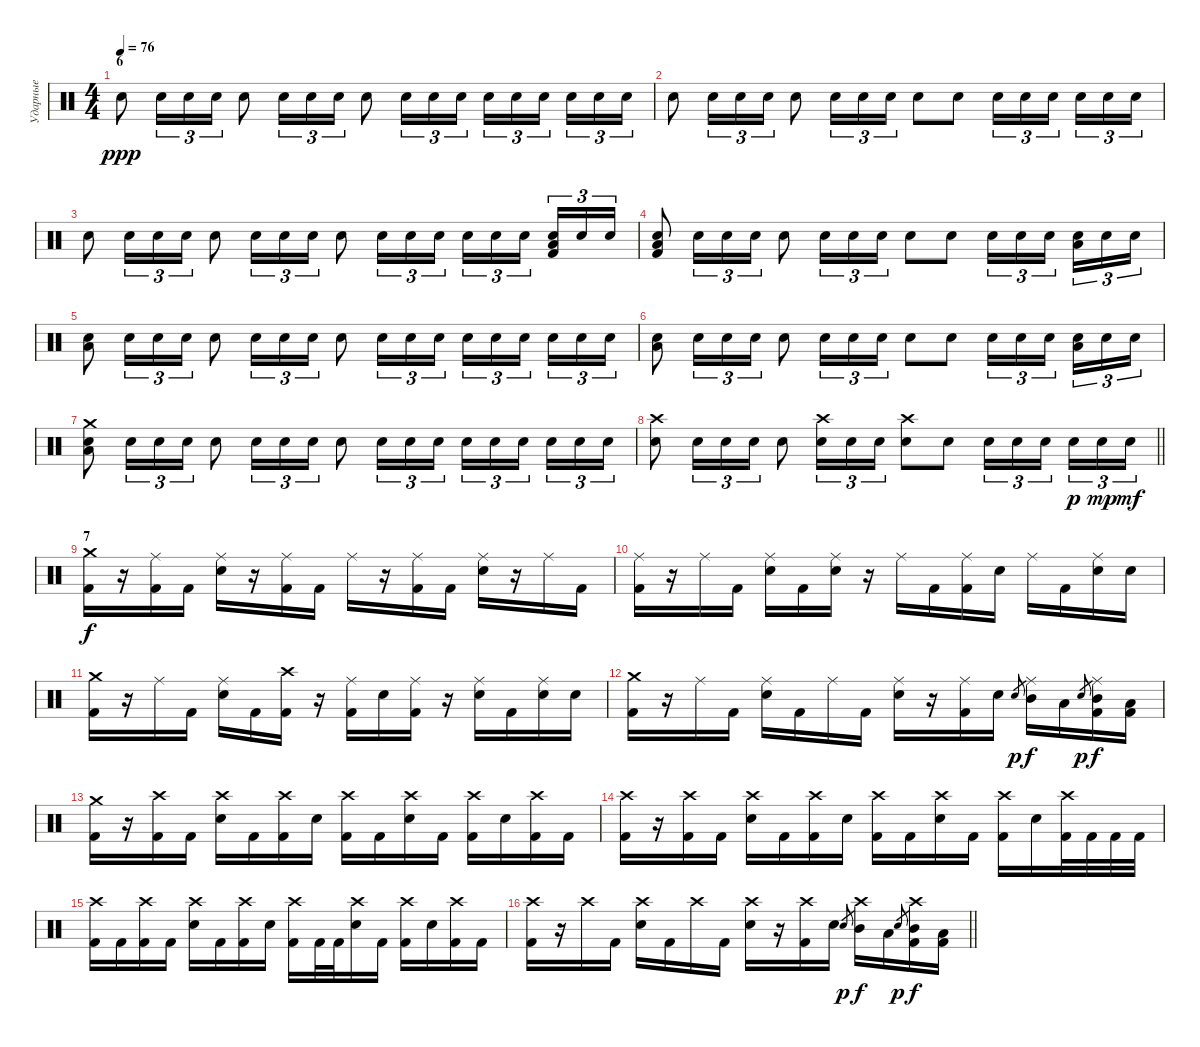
\track ("Ударные" "Ударные") {instrument percussion}
\staff {score}
\articulation defaults
\ts (4 4)
\section ("" "6")
\tempo 76
\clef neutral
\ks c "Snare (hit) 2".8{dy ppp} "Snare (hit) 2".16{tu (3 2)} "Snare (hit) 2".16{tu (3 2)} "Snare (hit) 2".16{tu (3 2)} "Snare (hit) 2".8 "Snare (hit) 2".16{tu (3 2)} "Snare (hit) 2".16{tu (3 2)} "Snare (hit) 2".16{tu (3 2)} "Snare (hit) 2".8 "Snare (hit) 2".16{tu (3 2)} "Snare (hit) 2".16{tu (3 2)} "Snare (hit) 2".16{tu (3 2)} "Snare (hit) 2".16{tu (3 2)} "Snare (hit) 2".16{tu (3 2)} "Snare (hit) 2".16{tu (3 2) beam splitsecondary} "Snare (hit) 2".16{tu (3 2)} "Snare (hit) 2".16{tu (3 2)} "Snare (hit) 2".16{tu (3 2)}
|
"Snare (hit) 2".8 "Snare (hit) 2".16{tu (3 2)} "Snare (hit) 2".16{tu (3 2)} "Snare (hit) 2".16{tu (3 2)} "Snare (hit) 2".8 "Snare (hit) 2".16{tu (3 2)} "Snare (hit) 2".16{tu (3 2)} "Snare (hit) 2".16{tu (3 2)} "Snare (hit) 2".8 "Snare (hit) 2".8 "Snare (hit) 2".16{tu (3 2)} "Snare (hit) 2".16{tu (3 2)} "Snare (hit) 2".16{tu (3 2) beam splitsecondary} "Snare (hit) 2".16{tu (3 2)} "Snare (hit) 2".16{tu (3 2)} "Snare (hit) 2".16{tu (3 2)} |
"Snare (hit) 2".8 "Snare (hit) 2".16{tu (3 2)} "Snare (hit) 2".16{tu (3 2)} "Snare (hit) 2".16{tu (3 2)} "Snare (hit) 2".8 "Snare (hit) 2".16{tu (3 2)} "Snare (hit) 2".16{tu (3 2)} "Snare (hit) 2".16{tu (3 2)} "Snare (hit) 2".8 "Snare (hit) 2".16{tu (3 2)} "Snare (hit) 2".16{tu (3 2)} "Snare (hit) 2".16{tu (3 2)} "Snare (hit) 2".16{tu (3 2)} "Snare (hit) 2".16{tu (3 2)} "Snare (hit) 2".16{tu (3 2) beam splitsecondary} ("Low Floor Tom (hit)" "Snare (hit) 2" "Kick (hit) 2").16{tu (3 2)} "Snare (hit) 2".16{tu (3 2)} "Snare (hit) 2".16{tu (3 2)} |
("Low Floor Tom (hit)" "Snare (hit) 2" "Kick (hit) 2").8 "Snare (hit) 2".16{tu (3 2)} "Snare (hit) 2".16{tu (3 2)} "Snare (hit) 2".16{tu (3 2)} "Snare (hit) 2".8 "Snare (hit) 2".16{tu (3 2)} "Snare (hit) 2".16{tu (3 2)} "Snare (hit) 2".16{tu (3 2)} "Snare (hit) 2".8 "Snare (hit) 2".8 "Snare (hit) 2".16{tu (3 2)} "Snare (hit) 2".16{tu (3 2)} "Snare (hit) 2".16{tu (3 2) beam splitsecondary} ("Low Floor Tom (hit)" "Snare (hit) 2").16{tu (3 2)} "Snare (hit) 2".16{tu (3 2)} "Snare (hit) 2".16{tu (3 2)} |
("Low Floor Tom (hit)" "Snare (hit) 2").8 "Snare (hit) 2".16{tu (3 2)} "Snare (hit) 2".16{tu (3 2)} "Snare (hit) 2".16{tu (3 2)} "Snare (hit) 2".8 "Snare (hit) 2".16{tu (3 2)} "Snare (hit) 2".16{tu (3 2)} "Snare (hit) 2".16{tu (3 2)} "Snare (hit) 2".8 "Snare (hit) 2".16{tu (3 2)} "Snare (hit) 2".16{tu (3 2)} "Snare (hit) 2".16{tu (3 2)} "Snare (hit) 2".16{tu (3 2)} "Snare (hit) 2".16{tu (3 2)} "Snare (hit) 2".16{tu (3 2) beam splitsecondary} "Snare (hit) 2".16{tu (3 2)} "Snare (hit) 2".16{tu (3 2)} "Snare (hit) 2".16{tu (3 2)} |
("Low Floor Tom (hit)" "Snare (hit) 2").8 "Snare (hit) 2".16{tu (3 2)} "Snare (hit) 2".16{tu (3 2)} "Snare (hit) 2".16{tu (3 2)} "Snare (hit) 2".8 "Snare (hit) 2".16{tu (3 2)} "Snare (hit) 2".16{tu (3 2)} "Snare (hit) 2".16{tu (3 2)} "Snare (hit) 2".8 "Snare (hit) 2".8 "Snare (hit) 2".16{tu (3 2)} "Snare (hit) 2".16{tu (3 2)} "Snare (hit) 2".16{tu (3 2) beam splitsecondary} ("Low Floor Tom (hit)" "Snare (hit) 2").16{tu (3 2)} "Snare (hit) 2".16{tu (3 2)} "Snare (hit) 2".16{tu (3 2)} |
("Crash medium (hit)" "Low Floor Tom (hit)" "Snare (hit) 2").8 "Snare (hit) 2".16{tu (3 2)} "Snare (hit) 2".16{tu (3 2)} "Snare (hit) 2".16{tu (3 2)} "Snare (hit) 2".8 "Snare (hit) 2".16{tu (3 2)} "Snare (hit) 2".16{tu (3 2)} "Snare (hit) 2".16{tu (3 2)} "Snare (hit) 2".8 "Snare (hit) 2".16{tu (3 2)} "Snare (hit) 2".16{tu (3 2)} "Snare (hit) 2".16{tu (3 2)} "Snare (hit) 2".16{tu (3 2)} "Snare (hit) 2".16{tu (3 2)} "Snare (hit) 2".16{tu (3 2) beam splitsecondary} "Snare (hit) 2".16{tu (3 2)} "Snare (hit) 2".16{tu (3 2)} "Snare (hit) 2".16{tu (3 2)} |
\barLineRight lightlight
("Crash high (hit)" "Snare (hit) 2").8 "Snare (hit) 2".16{tu (3 2)} "Snare (hit) 2".16{tu (3 2)} "Snare (hit) 2".16{tu (3 2)} "Snare (hit) 2".8 ("Crash high (hit)" "Snare (hit) 2").16{tu (3 2)} "Snare (hit) 2".16{tu (3 2)} "Snare (hit) 2".16{tu (3 2)} ("Crash high (hit)" "Snare (hit) 2").8 "Snare (hit) 2".8 "Snare (hit) 2".16{tu (3 2)} "Snare (hit) 2".16{tu (3 2)} "Snare (hit) 2".16{tu (3 2) beam splitsecondary} "Snare (hit) 2".16{tu (3 2) dy p} "Snare (hit) 2".16{tu (3 2) dy mp} "Snare (hit) 2".16{tu (3 2) dy mf} |
\section ("" "7")
("Crash medium (hit)" "Kick (hit) 2").16{dy f} r.16 ("Ride (middle)" "Kick (hit) 2").16 "Kick (hit) 2".16 ("Ride (middle)" "Snare (hit) 2").16 r.16 ("Ride (middle)" "Kick (hit) 2").16 "Kick (hit) 2".16 "Ride (middle)".16 r.16 ("Ride (middle)" "Kick (hit) 2").16 "Kick (hit) 2".16 ("Ride (middle)" "Snare (hit) 2").16 r.16 "Ride (middle)".16 "Kick (hit) 2".16 |
("Ride (middle)" "Kick (hit) 2").16 r.16 "Ride (middle)".16 "Kick (hit) 2".16 ("Ride (middle)" "Snare (hit) 2").16 "Kick (hit) 2".16 ("Ride (middle)" "Snare (hit) 2").16 r.16 "Ride (middle)".16 "Kick (hit) 2".16 ("Ride (middle)" "Kick (hit) 2").16 "Snare (hit) 2".16 "Ride (middle)".16 "Kick (hit) 2".16 ("Ride (middle)" "Snare (hit) 2").16 "Snare (hit) 2".16 |
("Crash medium (hit)" "Kick (hit) 2").16 r.16 "Ride (middle)".16 "Kick (hit) 2".16 ("Ride (middle)" "Snare (hit) 2").16 "Kick (hit) 2".16 ("Crash high (hit)" "Kick (hit) 2").16 r.16 ("Ride (middle)" "Kick (hit) 2").16 "Snare (hit) 2".16 ("Ride (middle)" "Kick (hit) 2").16 r.16 ("Ride (middle)" "Snare (hit) 2").16 "Kick (hit) 2".16 ("Ride (middle)" "Snare (hit) 2").16 "Snare (hit) 2".16 |
("Crash medium (hit)" "Kick (hit) 2").16 r.16 "Ride (middle)".16 "Kick (hit) 2".16 ("Ride (middle)" "Snare (hit) 2").16 "Kick (hit) 2".16 "Ride (middle)".16 "Kick (hit) 2".16 ("Ride (middle)" "Snare (hit) 2").16 r.16 ("Ride (middle)" "Kick (hit) 2").16 "Snare (hit) 2".16 "Snare (hit) 2".8{gr dy p} ("Ride (middle)" "Mid Tom (hit)").16{dy f} "Low Tom (hit)".16 "Snare (hit) 2".8{gr dy p} ("Ride (middle)" "Mid Tom (hit)" "Kick (hit) 2").16{dy f} ("Low Tom (hit)" "Kick (hit) 2").16 |
("Crash medium (hit)" "Kick (hit) 2").16 r.16 ("Crash high (hit)" "Kick (hit) 2").16 "Kick (hit) 2".16 ("Crash high (hit)" "Snare (hit) 2").16 "Kick (hit) 2".16 ("Crash high (hit)" "Kick (hit) 2").16 "Snare (hit) 2".16 ("Crash high (hit)" "Kick (hit) 2").16 "Kick (hit) 2".16 ("Crash high (hit)" "Snare (hit) 2").16 "Kick (hit) 2".16 ("Crash high (hit)" "Kick (hit) 2").16 "Snare (hit) 2".16 ("Crash high (hit)" "Kick (hit) 2").16 "Kick (hit) 2".16 |
("Crash high (hit)" "Kick (hit) 2").16 r.16 ("Crash high (hit)" "Kick (hit) 2").16 "Kick (hit) 2".16 ("Crash high (hit)" "Snare (hit) 2").16 "Kick (hit) 2".16 ("Crash high (hit)" "Kick (hit) 2").16 "Snare (hit) 2".16 ("Crash high (hit)" "Kick (hit) 2").16 "Kick (hit) 2".16 ("Crash high (hit)" "Snare (hit) 2").16 "Kick (hit) 2".16 ("Crash high (hit)" "Kick (hit) 2").16 "Snare (hit) 2".16 ("Crash high (hit)" "Kick (hit) 2").32 "Kick (hit) 2".32 "Kick (hit) 2".32 "Kick (hit) 2".32 |
("Crash high (hit)" "Kick (hit) 2").16 "Kick (hit) 2".16 ("Crash high (hit)" "Kick (hit) 2").16 "Kick (hit) 2".16 ("Crash high (hit)" "Snare (hit) 2").16 "Kick (hit) 2".16 ("Crash high (hit)" "Kick (hit) 2").16 "Snare (hit) 2".16 ("Crash high (hit)" "Kick (hit) 2").16 "Kick (hit) 2".32 "Kick (hit) 2".32 ("Crash high (hit)" "Snare (hit) 2").16 "Kick (hit) 2".16 ("Crash high (hit)" "Kick (hit) 2").16 "Snare (hit) 2".16 ("Crash high (hit)" "Kick (hit) 2").16 "Kick (hit) 2".16 |
\barLineRight lightlight
("Crash high (hit)" "Kick (hit) 2").16 r.16 "Crash high (hit)".16 "Kick (hit) 2".16 ("Crash high (hit)" "Snare (hit) 2").16 "Kick (hit) 2".16 "Crash high (hit)".16 "Kick (hit) 2".16 ("Crash high (hit)" "Snare (hit) 2").16 r.16 ("Crash high (hit)" "Kick (hit) 2").16 "Snare (hit) 2".16 "Snare (hit) 2".8{gr dy p} ("Crash high (hit)" "Mid Tom (hit)").16{dy f} "Low Tom (hit)".16 "Snare (hit) 2".8{gr dy p} ("Crash high (hit)" "Mid Tom (hit)" "Kick (hit) 2").16{dy f} ("Low Tom (hit)" "Kick (hit) 2").16
